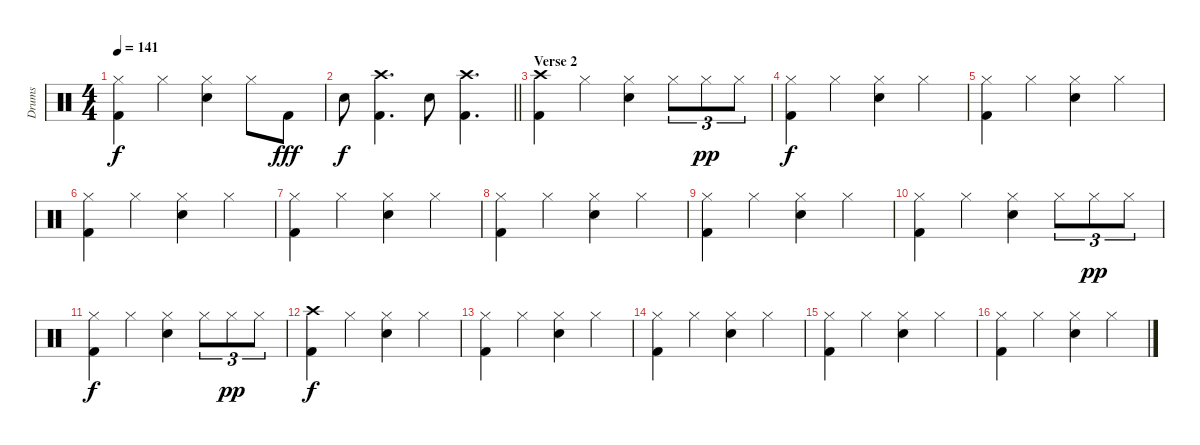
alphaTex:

\track ("Drums" "Drums") {instrument percussion}
\staff {score}
\articulation defaults
\ts (4 4)
\tempo 141
\clef neutral
\ks c
("Hi-Hat (closed)" "Kick (hit) 2").4{dy f} "Hi-Hat (closed)".4 ("Hi-Hat (closed)" "Electric Snare (hit)").4 "Hi-Hat (closed)".8 "Kick (hit) 2".8{dy fff} |
\barLineRight lightlight "Electric Snare (hit)".8{dy f}
("Crash high (hit)" "Kick (hit) 2").4{d} "Electric Snare (hit)".8 ("Crash high (hit)" "Kick (hit) 2").4{d} |
\section ("" "Verse 2")
("Crash high (hit)" "Kick (hit) 2").4{volume 5} "Hi-Hat (closed)".4 ("Hi-Hat (closed)" "Electric Snare (hit)").4 "Hi-Hat (closed)".8{tu (3 2)} "Hi-Hat (closed)".8{tu (3 2) dy pp} "Hi-Hat (closed)".8{tu (3 2)} |
("Hi-Hat (closed)" "Kick (hit) 2").4{dy f} "Hi-Hat (closed)".4 ("Hi-Hat (closed)" "Electric Snare (hit)").4 "Hi-Hat (closed)".4 |
("Hi-Hat (closed)" "Kick (hit) 2").4 "Hi-Hat (closed)".4 ("Hi-Hat (closed)" "Electric Snare (hit)").4 "Hi-Hat (closed)".4 |
("Hi-Hat (closed)" "Kick (hit) 2").4 "Hi-Hat (closed)".4 ("Hi-Hat (closed)" "Electric Snare (hit)").4 "Hi-Hat (closed)".4 |
("Hi-Hat (closed)" "Kick (hit) 2").4 "Hi-Hat (closed)".4 ("Hi-Hat (closed)" "Electric Snare (hit)").4 "Hi-Hat (closed)".4 |
("Hi-Hat (closed)" "Kick (hit) 2").4 "Hi-Hat (closed)".4 ("Hi-Hat (closed)" "Electric Snare (hit)").4 "Hi-Hat (closed)".4 |
("Hi-Hat (closed)" "Kick (hit) 2").4 "Hi-Hat (closed)".4 ("Hi-Hat (closed)" "Electric Snare (hit)").4 "Hi-Hat (closed)".4 |
("Hi-Hat (closed)" "Kick (hit) 2").4 "Hi-Hat (closed)".4 ("Hi-Hat (closed)" "Electric Snare (hit)").4 "Hi-Hat (closed)".8{tu (3 2)} "Hi-Hat (closed)".8{tu (3 2) dy pp} "Hi-Hat (closed)".8{tu (3 2)} |
("Hi-Hat (closed)" "Kick (hit) 2").4{dy f} "Hi-Hat (closed)".4 ("Hi-Hat (closed)" "Electric Snare (hit)").4 "Hi-Hat (closed)".8{tu (3 2)} "Hi-Hat (closed)".8{tu (3 2) dy pp} "Hi-Hat (closed)".8{tu (3 2)} |
("Crash high (hit)" "Kick (hit) 2").4{dy f} "Hi-Hat (closed)".4 ("Hi-Hat (closed)" "Electric Snare (hit)").4 "Hi-Hat (closed)".4 |
("Hi-Hat (closed)" "Kick (hit) 2").4 "Hi-Hat (closed)".4 ("Hi-Hat (closed)" "Electric Snare (hit)").4 "Hi-Hat (closed)".4 |
("Hi-Hat (closed)" "Kick (hit) 2").4 "Hi-Hat (closed)".4 ("Hi-Hat (closed)" "Electric Snare (hit)").4 "Hi-Hat (closed)".4 |
("Hi-Hat (closed)" "Kick (hit) 2").4 "Hi-Hat (closed)".4 ("Hi-Hat (closed)" "Electric Snare (hit)").4 "Hi-Hat (closed)".4 |
("Hi-Hat (closed)" "Kick (hit) 2").4 "Hi-Hat (closed)".4 ("Hi-Hat (closed)" "Electric Snare (hit)").4 "Hi-Hat (closed)".4
